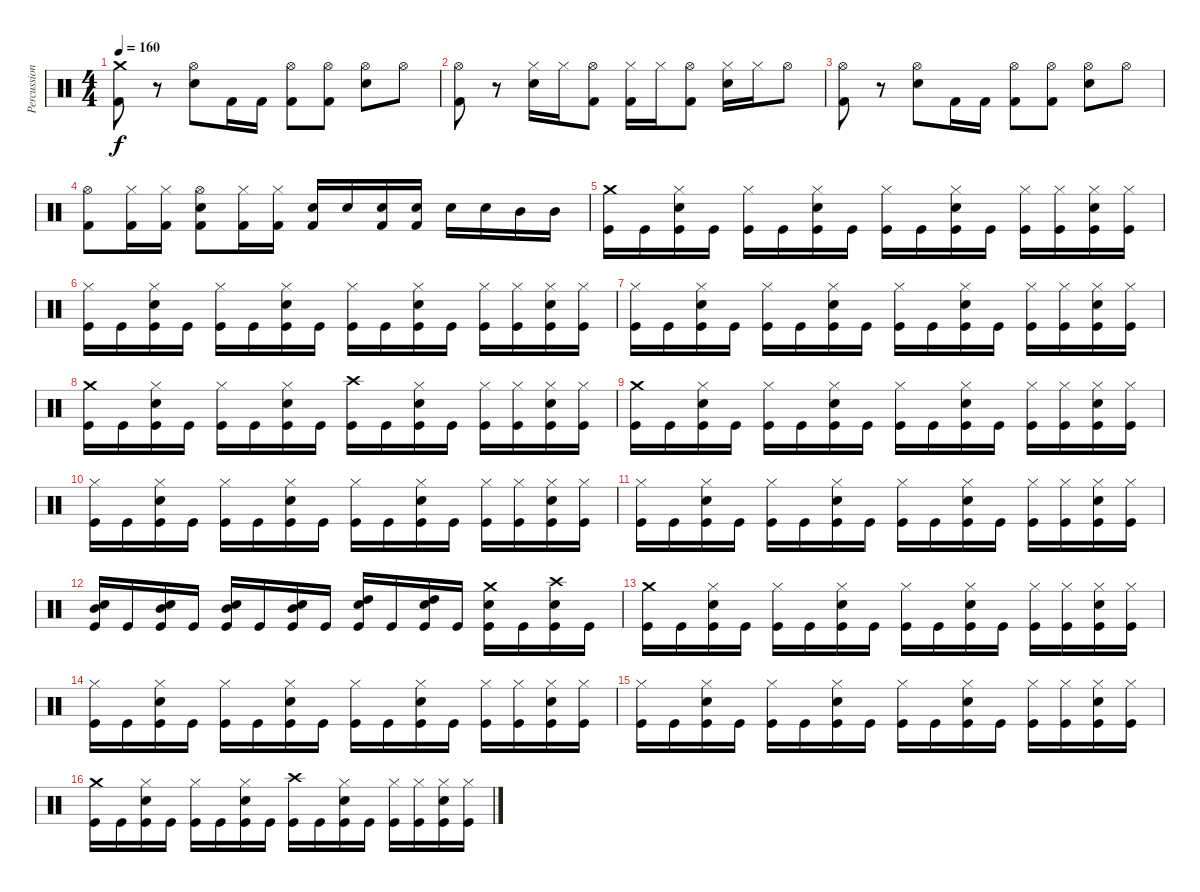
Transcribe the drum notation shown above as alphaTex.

\track ("Percussions" "Percussion") {instrument percussion}
\staff {score}
\articulation defaults
\ts (4 4)
\tempo 160
\clef neutral
\ks c
("Kick (hit) 2" "Crash medium (hit)").8{dy f} r.8 ("Electric Snare (hit)" "Hi-Hat (open)").8 "Kick (hit) 2".16 "Kick (hit) 2".16 ("Kick (hit) 2" "Hi-Hat (open)").8 ("Kick (hit) 2" "Hi-Hat (open)").8 ("Electric Snare (hit)" "Hi-Hat (open)").8 "Hi-Hat (open)".8 |
("Kick (hit) 2" "Hi-Hat (open)").8 r.8 ("Electric Snare (hit)" "Hi-Hat (closed)").16 "Hi-Hat (closed)".16 ("Kick (hit) 2" "Hi-Hat (open)").8 ("Kick (hit) 2" "Hi-Hat (closed)").16 "Hi-Hat (closed)".16 ("Kick (hit) 2" "Hi-Hat (open)").8 ("Electric Snare (hit)" "Hi-Hat (closed)").16 "Hi-Hat (closed)".16 "Hi-Hat (open)".8 |
("Kick (hit) 2" "Hi-Hat (open)").8 r.8 ("Electric Snare (hit)" "Hi-Hat (open)").8 "Kick (hit) 2".16 "Kick (hit) 2".16 ("Kick (hit) 2" "Hi-Hat (open)").8 ("Kick (hit) 2" "Hi-Hat (open)").8 ("Electric Snare (hit)" "Hi-Hat (open)").8 "Hi-Hat (open)".8 |
("Kick (hit) 2" "Hi-Hat (open)").8 ("Kick (hit) 2" "Hi-Hat (closed)").16 ("Kick (hit) 2" "Hi-Hat (closed)").16 ("Kick (hit) 2" "Electric Snare (hit)" "Hi-Hat (open)").8 ("Kick (hit) 2" "Hi-Hat (closed)").16 ("Kick (hit) 2" "Hi-Hat (closed)").16 ("Kick (hit) 2" "Electric Snare (hit)").16 "Electric Snare (hit)".16 ("Kick (hit) 2" "Electric Snare (hit)").16 ("Kick (hit) 2" "Electric Snare (hit)").16 "Snare (hit) 2".16 "Snare (hit) 2".16 "Mid Tom (hit)".16 "Mid Tom (hit)".16 |
("Kick (hit)" "Crash medium (hit)").16 "Kick (hit)".16 ("Kick (hit)" "Snare (hit) 2" "Hi-Hat (closed)").16 "Kick (hit)".16 ("Kick (hit)" "Hi-Hat (closed)").16 "Kick (hit)".16 ("Kick (hit)" "Snare (hit) 2" "Hi-Hat (closed)").16 "Kick (hit)".16 ("Kick (hit)" "Hi-Hat (closed)").16 "Kick (hit)".16 ("Kick (hit)" "Snare (hit) 2" "Hi-Hat (closed)").16 "Kick (hit)".16 ("Kick (hit)" "Hi-Hat (closed)").16 ("Kick (hit)" "Hi-Hat (closed)").16 ("Kick (hit)" "Snare (hit) 2" "Hi-Hat (closed)").16 ("Kick (hit)" "Hi-Hat (closed)").16 |
("Kick (hit)" "Hi-Hat (closed)").16 "Kick (hit)".16 ("Kick (hit)" "Snare (hit) 2" "Hi-Hat (closed)").16 "Kick (hit)".16 ("Kick (hit)" "Hi-Hat (closed)").16 "Kick (hit)".16 ("Kick (hit)" "Snare (hit) 2" "Hi-Hat (closed)").16 "Kick (hit)".16 ("Kick (hit)" "Hi-Hat (closed)").16 "Kick (hit)".16 ("Kick (hit)" "Snare (hit) 2" "Hi-Hat (closed)").16 "Kick (hit)".16 ("Kick (hit)" "Hi-Hat (closed)").16 ("Kick (hit)" "Hi-Hat (closed)").16 ("Kick (hit)" "Snare (hit) 2" "Hi-Hat (closed)").16 ("Kick (hit)" "Hi-Hat (closed)").16 |
("Kick (hit)" "Hi-Hat (closed)").16 "Kick (hit)".16 ("Kick (hit)" "Snare (hit) 2" "Hi-Hat (closed)").16 "Kick (hit)".16 ("Kick (hit)" "Hi-Hat (closed)").16 "Kick (hit)".16 ("Kick (hit)" "Snare (hit) 2" "Hi-Hat (closed)").16 "Kick (hit)".16 ("Kick (hit)" "Hi-Hat (closed)").16 "Kick (hit)".16 ("Kick (hit)" "Snare (hit) 2" "Hi-Hat (closed)").16 "Kick (hit)".16 ("Kick (hit)" "Hi-Hat (closed)").16 ("Kick (hit)" "Hi-Hat (closed)").16 ("Kick (hit)" "Snare (hit) 2" "Hi-Hat (closed)").16 ("Kick (hit)" "Hi-Hat (closed)").16 |
("Kick (hit)" "Crash medium (hit)").16 "Kick (hit)".16 ("Kick (hit)" "Snare (hit) 2" "Hi-Hat (closed)").16 "Kick (hit)".16 ("Kick (hit)" "Hi-Hat (closed)").16 "Kick (hit)".16 ("Kick (hit)" "Snare (hit) 2" "Hi-Hat (closed)").16 "Kick (hit)".16 ("Kick (hit)" "Crash high (hit)").16 "Kick (hit)".16 ("Kick (hit)" "Snare (hit) 2" "Hi-Hat (closed)").16 "Kick (hit)".16 ("Kick (hit)" "Hi-Hat (closed)").16 ("Kick (hit)" "Hi-Hat (closed)").16 ("Kick (hit)" "Snare (hit) 2" "Hi-Hat (closed)").16 ("Kick (hit)" "Hi-Hat (closed)").16 |
("Kick (hit)" "Crash medium (hit)").16 "Kick (hit)".16 ("Kick (hit)" "Snare (hit) 2" "Hi-Hat (closed)").16 "Kick (hit)".16 ("Kick (hit)" "Hi-Hat (closed)").16 "Kick (hit)".16 ("Kick (hit)" "Snare (hit) 2" "Hi-Hat (closed)").16 "Kick (hit)".16 ("Kick (hit)" "Hi-Hat (closed)").16 "Kick (hit)".16 ("Kick (hit)" "Snare (hit) 2" "Hi-Hat (closed)").16 "Kick (hit)".16 ("Kick (hit)" "Hi-Hat (closed)").16 ("Kick (hit)" "Hi-Hat (closed)").16 ("Kick (hit)" "Snare (hit) 2" "Hi-Hat (closed)").16 ("Kick (hit)" "Hi-Hat (closed)").16 |
("Kick (hit)" "Hi-Hat (closed)").16 "Kick (hit)".16 ("Kick (hit)" "Snare (hit) 2" "Hi-Hat (closed)").16 "Kick (hit)".16 ("Kick (hit)" "Hi-Hat (closed)").16 "Kick (hit)".16 ("Kick (hit)" "Snare (hit) 2" "Hi-Hat (closed)").16 "Kick (hit)".16 ("Kick (hit)" "Hi-Hat (closed)").16 "Kick (hit)".16 ("Kick (hit)" "Snare (hit) 2" "Hi-Hat (closed)").16 "Kick (hit)".16 ("Kick (hit)" "Hi-Hat (closed)").16 ("Kick (hit)" "Hi-Hat (closed)").16 ("Kick (hit)" "Snare (hit) 2" "Hi-Hat (closed)").16 ("Kick (hit)" "Hi-Hat (closed)").16 |
("Kick (hit)" "Hi-Hat (closed)").16 "Kick (hit)".16 ("Kick (hit)" "Snare (hit) 2" "Hi-Hat (closed)").16 "Kick (hit)".16 ("Kick (hit)" "Hi-Hat (closed)").16 "Kick (hit)".16 ("Kick (hit)" "Snare (hit) 2" "Hi-Hat (closed)").16 "Kick (hit)".16 ("Kick (hit)" "Hi-Hat (closed)").16 "Kick (hit)".16 ("Kick (hit)" "Snare (hit) 2" "Hi-Hat (closed)").16 "Kick (hit)".16 ("Kick (hit)" "Hi-Hat (closed)").16 ("Kick (hit)" "Hi-Hat (closed)").16 ("Kick (hit)" "Snare (hit) 2" "Hi-Hat (closed)").16 ("Kick (hit)" "Hi-Hat (closed)").16 |
("Kick (hit)" "Snare (hit) 2" "Mid Tom (hit)").16 "Kick (hit)".16 ("Kick (hit)" "Snare (hit) 2" "Mid Tom (hit)").16 "Kick (hit)".16 ("Kick (hit)" "Snare (hit) 2" "Mid Tom (hit)").16 "Kick (hit)".16 ("Kick (hit)" "Snare (hit) 2" "Mid Tom (hit)").16 "Kick (hit)".16 ("Kick (hit)" "Electric Snare (hit)" "High Tom (hit)").16 "Kick (hit)".16 ("Kick (hit)" "Electric Snare (hit)" "High Tom (hit)").16 "Kick (hit)".16 ("Kick (hit)" "Electric Snare (hit)" "Crash medium (hit)").16 "Kick (hit)".16 ("Kick (hit)" "Snare (hit) 2" "Crash high (hit)").16 "Kick (hit)".16 |
("Kick (hit)" "Crash medium (hit)").16 "Kick (hit)".16 ("Kick (hit)" "Snare (hit) 2" "Hi-Hat (closed)").16 "Kick (hit)".16 ("Kick (hit)" "Hi-Hat (closed)").16 "Kick (hit)".16 ("Kick (hit)" "Snare (hit) 2" "Hi-Hat (closed)").16 "Kick (hit)".16 ("Kick (hit)" "Hi-Hat (closed)").16 "Kick (hit)".16 ("Kick (hit)" "Snare (hit) 2" "Hi-Hat (closed)").16 "Kick (hit)".16 ("Kick (hit)" "Hi-Hat (closed)").16 ("Kick (hit)" "Hi-Hat (closed)").16 ("Kick (hit)" "Snare (hit) 2" "Hi-Hat (closed)").16 ("Kick (hit)" "Hi-Hat (closed)").16 |
("Kick (hit)" "Hi-Hat (closed)").16 "Kick (hit)".16 ("Kick (hit)" "Snare (hit) 2" "Hi-Hat (closed)").16 "Kick (hit)".16 ("Kick (hit)" "Hi-Hat (closed)").16 "Kick (hit)".16 ("Kick (hit)" "Snare (hit) 2" "Hi-Hat (closed)").16 "Kick (hit)".16 ("Kick (hit)" "Hi-Hat (closed)").16 "Kick (hit)".16 ("Kick (hit)" "Snare (hit) 2" "Hi-Hat (closed)").16 "Kick (hit)".16 ("Kick (hit)" "Hi-Hat (closed)").16 ("Kick (hit)" "Hi-Hat (closed)").16 ("Kick (hit)" "Snare (hit) 2" "Hi-Hat (closed)").16 ("Kick (hit)" "Hi-Hat (closed)").16 |
("Kick (hit)" "Hi-Hat (closed)").16 "Kick (hit)".16 ("Kick (hit)" "Snare (hit) 2" "Hi-Hat (closed)").16 "Kick (hit)".16 ("Kick (hit)" "Hi-Hat (closed)").16 "Kick (hit)".16 ("Kick (hit)" "Snare (hit) 2" "Hi-Hat (closed)").16 "Kick (hit)".16 ("Kick (hit)" "Hi-Hat (closed)").16 "Kick (hit)".16 ("Kick (hit)" "Snare (hit) 2" "Hi-Hat (closed)").16 "Kick (hit)".16 ("Kick (hit)" "Hi-Hat (closed)").16 ("Kick (hit)" "Hi-Hat (closed)").16 ("Kick (hit)" "Snare (hit) 2" "Hi-Hat (closed)").16 ("Kick (hit)" "Hi-Hat (closed)").16 |
("Kick (hit)" "Crash medium (hit)").16 "Kick (hit)".16 ("Kick (hit)" "Snare (hit) 2" "Hi-Hat (closed)").16 "Kick (hit)".16 ("Kick (hit)" "Hi-Hat (closed)").16 "Kick (hit)".16 ("Kick (hit)" "Snare (hit) 2" "Hi-Hat (closed)").16 "Kick (hit)".16 ("Kick (hit)" "Crash high (hit)").16 "Kick (hit)".16 ("Kick (hit)" "Snare (hit) 2" "Hi-Hat (closed)").16 "Kick (hit)".16 ("Kick (hit)" "Hi-Hat (closed)").16 ("Kick (hit)" "Hi-Hat (closed)").16 ("Kick (hit)" "Snare (hit) 2" "Hi-Hat (closed)").16 ("Kick (hit)" "Hi-Hat (closed)").16
